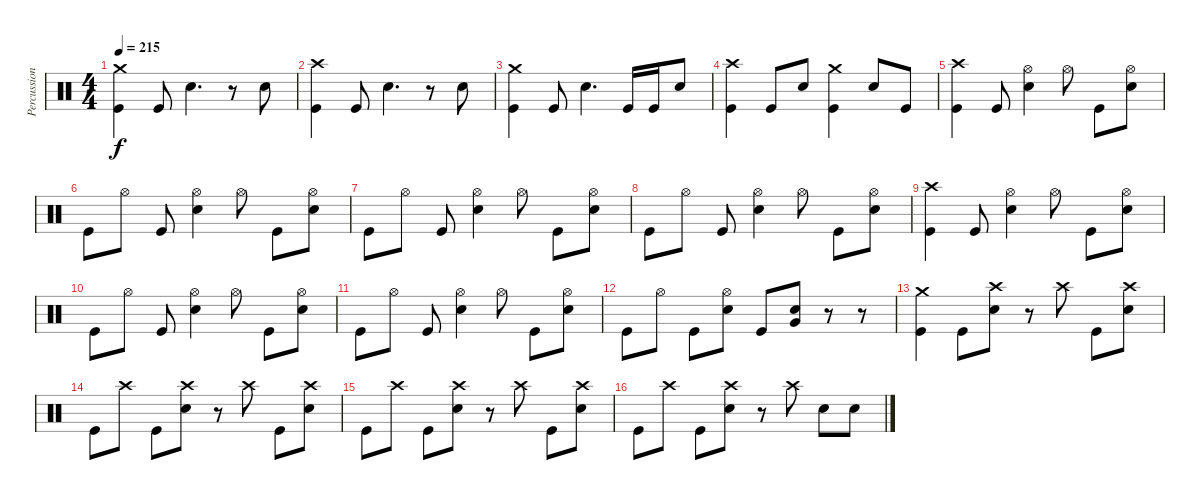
\track ("Percussion" "Percussion") {instrument percussion}
\staff {score}
\articulation defaults
\ts (4 4)
\tempo 215
\clef neutral
\ks c
("Crash medium (hit)" "Kick (hit)").4{dy f} "Kick (hit)".8 "Electric Snare (hit)".4{d} r.8 "Electric Snare (hit)".8 |
("Crash high (hit)" "Kick (hit)").4 "Kick (hit)".8 "Electric Snare (hit)".4{d} r.8 "Electric Snare (hit)".8 |
("Crash medium (hit)" "Kick (hit)").4 "Kick (hit)".8 "Electric Snare (hit)".4{d} "Kick (hit)".16 "Kick (hit)".16 "Electric Snare (hit)".8 |
("Crash high (hit)" "Kick (hit)").4 "Kick (hit)".8 "Electric Snare (hit)".8 ("Crash medium (hit)" "Kick (hit)").4 "Electric Snare (hit)".8 "Kick (hit)".8 |
("Crash high (hit)" "Kick (hit)").4 "Kick (hit)".8 ("Hi-Hat (open)" "Electric Snare (hit)").4 "Hi-Hat (open)".8 "Kick (hit)".8 ("Hi-Hat (open)" "Electric Snare (hit)").8 |
"Kick (hit)".8 "Hi-Hat (open)".8 "Kick (hit)".8 ("Hi-Hat (open)" "Electric Snare (hit)").4 "Hi-Hat (open)".8 "Kick (hit)".8 ("Hi-Hat (open)" "Electric Snare (hit)").8 |
"Kick (hit)".8 "Hi-Hat (open)".8 "Kick (hit)".8 ("Hi-Hat (open)" "Electric Snare (hit)").4 "Hi-Hat (open)".8 "Kick (hit)".8 ("Hi-Hat (open)" "Electric Snare (hit)").8 |
"Kick (hit)".8 "Hi-Hat (open)".8 "Kick (hit)".8 ("Hi-Hat (open)" "Electric Snare (hit)").4 "Hi-Hat (open)".8 "Kick (hit)".8 ("Hi-Hat (open)" "Electric Snare (hit)").8 |
("Crash high (hit)" "Kick (hit)").4 "Kick (hit)".8 ("Hi-Hat (open)" "Electric Snare (hit)").4 "Hi-Hat (open)".8 "Kick (hit)".8 ("Hi-Hat (open)" "Electric Snare (hit)").8 |
"Kick (hit)".8 "Hi-Hat (open)".8 "Kick (hit)".8 ("Hi-Hat (open)" "Electric Snare (hit)").4 "Hi-Hat (open)".8 "Kick (hit)".8 ("Hi-Hat (open)" "Electric Snare (hit)").8 |
"Kick (hit)".8 "Hi-Hat (open)".8 "Kick (hit)".8 ("Hi-Hat (open)" "Electric Snare (hit)").4 "Hi-Hat (open)".8 "Kick (hit)".8 ("Hi-Hat (open)" "Electric Snare (hit)").8 |
"Kick (hit)".8 "Hi-Hat (open)".8 "Kick (hit)".8 ("Hi-Hat (open)" "Electric Snare (hit)").8 "Kick (hit)".8 ("Very Low Tom (hit)" "Snare (hit) 2").8 r.8 r.8 |
("Crash medium (hit)" "Kick (hit)").4 "Kick (hit)".8 ("Crash high (hit)" "Electric Snare (hit)").8 r.8 "Crash high (hit)".8 "Kick (hit)".8 ("Crash high (hit)" "Electric Snare (hit)").8 |
"Kick (hit)".8 "Crash high (hit)".8 "Kick (hit)".8 ("Crash high (hit)" "Electric Snare (hit)").8 r.8 "Crash high (hit)".8 "Kick (hit)".8 ("Crash high (hit)" "Electric Snare (hit)").8 |
"Kick (hit)".8 "Crash high (hit)".8 "Kick (hit)".8 ("Crash high (hit)" "Electric Snare (hit)").8 r.8 "Crash high (hit)".8 "Kick (hit)".8 ("Crash high (hit)" "Electric Snare (hit)").8 |
"Kick (hit)".8 "Crash high (hit)".8 "Kick (hit)".8 ("Crash high (hit)" "Electric Snare (hit)").8 r.8 "Crash high (hit)".8 "Electric Snare (hit)".8 "Electric Snare (hit)".8
